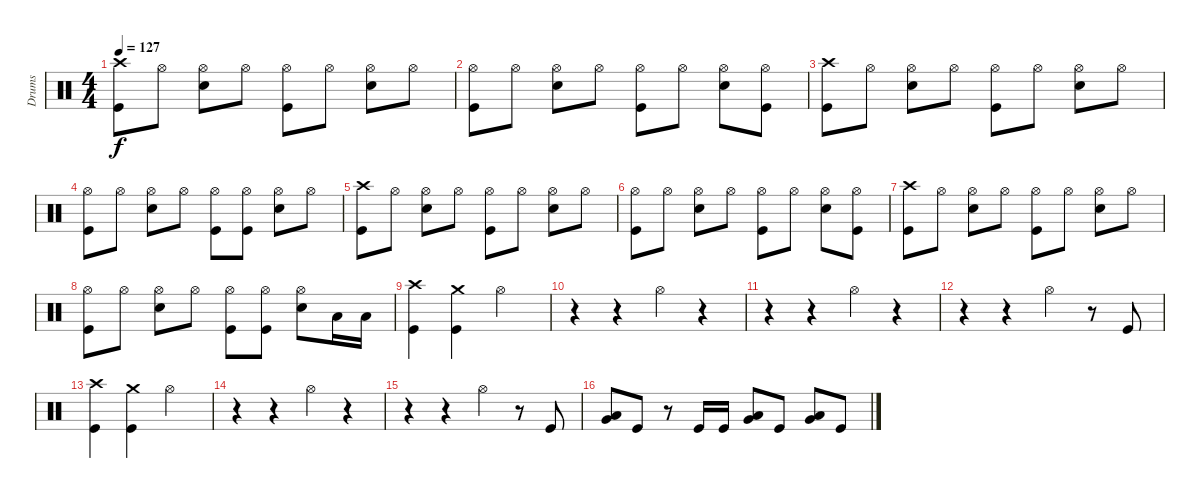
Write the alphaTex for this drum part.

\track ("Drums" "Drums") {instrument percussion}
\staff {score}
\articulation defaults
\ts (4 4)
\tempo 127
\clef neutral
\ks c
("Crash high (hit)" "Kick (hit)").8{dy f} "Hi-Hat (open)".8 ("Hi-Hat (open)" "Snare (hit) 2").8 "Hi-Hat (open)".8 ("Hi-Hat (open)" "Kick (hit)").8 "Hi-Hat (open)".8 ("Hi-Hat (open)" "Snare (hit) 2").8 "Hi-Hat (open)".8 |
("Hi-Hat (open)" "Kick (hit)").8 "Hi-Hat (open)".8 ("Hi-Hat (open)" "Snare (hit) 2").8 "Hi-Hat (open)".8 ("Hi-Hat (open)" "Kick (hit)").8 "Hi-Hat (open)".8 ("Hi-Hat (open)" "Snare (hit) 2").8 ("Hi-Hat (open)" "Kick (hit)").8 |
("Crash high (hit)" "Kick (hit)").8 "Hi-Hat (open)".8 ("Hi-Hat (open)" "Snare (hit) 2").8 "Hi-Hat (open)".8 ("Hi-Hat (open)" "Kick (hit)").8 "Hi-Hat (open)".8 ("Hi-Hat (open)" "Snare (hit) 2").8 "Hi-Hat (open)".8 |
("Hi-Hat (open)" "Kick (hit)").8 "Hi-Hat (open)".8 ("Hi-Hat (open)" "Snare (hit) 2").8 "Hi-Hat (open)".8 ("Hi-Hat (open)" "Kick (hit)").8 ("Hi-Hat (open)" "Kick (hit)").8 ("Hi-Hat (open)" "Snare (hit) 2").8 "Hi-Hat (open)".8 |
("Crash high (hit)" "Kick (hit)").8 "Hi-Hat (open)".8 ("Hi-Hat (open)" "Snare (hit) 2").8 "Hi-Hat (open)".8 ("Hi-Hat (open)" "Kick (hit)").8 "Hi-Hat (open)".8 ("Hi-Hat (open)" "Snare (hit) 2").8 "Hi-Hat (open)".8 |
("Hi-Hat (open)" "Kick (hit)").8 "Hi-Hat (open)".8 ("Hi-Hat (open)" "Snare (hit) 2").8 "Hi-Hat (open)".8 ("Hi-Hat (open)" "Kick (hit)").8 "Hi-Hat (open)".8 ("Hi-Hat (open)" "Snare (hit) 2").8 ("Hi-Hat (open)" "Kick (hit)").8 |
("Crash high (hit)" "Kick (hit)").8 "Hi-Hat (open)".8 ("Hi-Hat (open)" "Snare (hit) 2").8 "Hi-Hat (open)".8 ("Hi-Hat (open)" "Kick (hit)").8 "Hi-Hat (open)".8 ("Hi-Hat (open)" "Snare (hit) 2").8 "Hi-Hat (open)".8 |
("Hi-Hat (open)" "Kick (hit)").8 "Hi-Hat (open)".8 ("Hi-Hat (open)" "Snare (hit) 2").8 "Hi-Hat (open)".8 ("Hi-Hat (open)" "Kick (hit)").8 ("Hi-Hat (open)" "Kick (hit)").8 ("Hi-Hat (open)" "Snare (hit) 2").8 "Low Floor Tom (hit)".16 "Low Floor Tom (hit)".16 |
("Crash high (hit)" "Kick (hit)").4 ("Crash medium (hit)" "Kick (hit)").4 "Hi-Hat (open)".2 |
r.4 r.4 "Hi-Hat (open)".4 r.4 |
r.4 r.4 "Hi-Hat (open)".4 r.4 |
r.4 r.4 "Hi-Hat (open)".4 r.8 "Kick (hit)".8 |
("Crash high (hit)" "Kick (hit)").4 ("Crash medium (hit)" "Kick (hit)").4 "Hi-Hat (open)".2 |
r.4 r.4 "Hi-Hat (open)".4 r.4 |
r.4 r.4 "Hi-Hat (open)".4 r.8 "Kick (hit)".8 |
("Very Low Tom (hit)" "Low Floor Tom (hit)").8 "Kick (hit)".8 r.8 "Kick (hit)".16 "Kick (hit)".16 ("Very Low Tom (hit)" "Low Floor Tom (hit)").8 "Kick (hit)".8 ("Very Low Tom (hit)" "Low Floor Tom (hit)").8 "Kick (hit)".8
